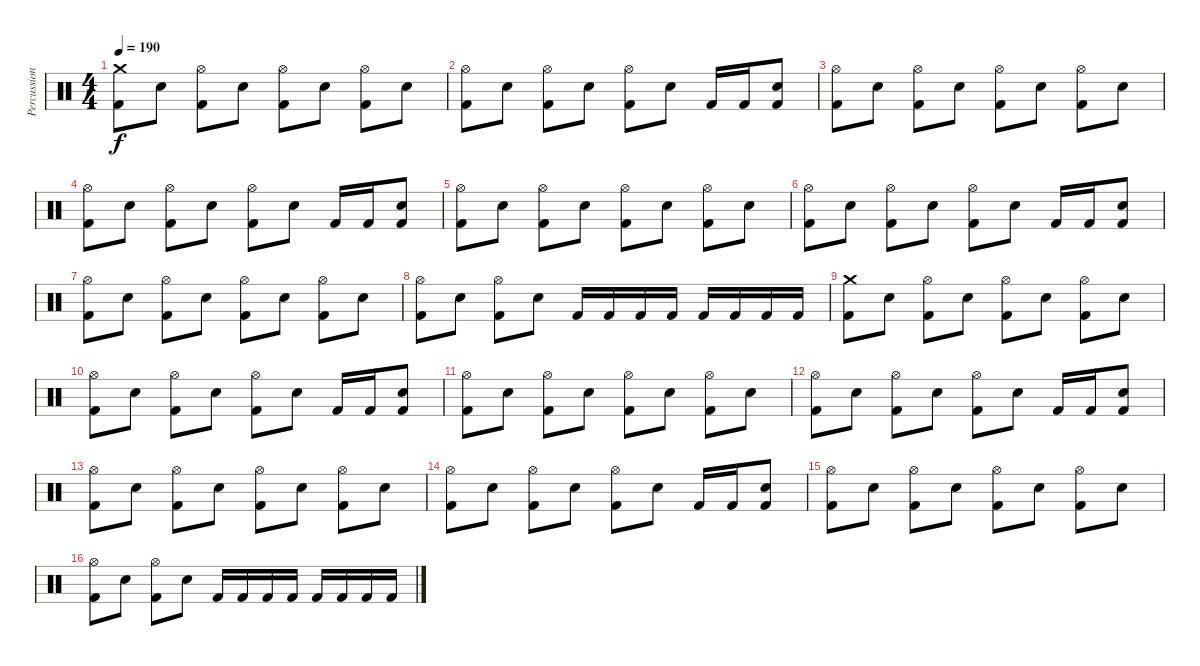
\track ("Percussion" "Percussion") {instrument percussion}
\staff {score}
\articulation defaults
\ts (4 4)
\tempo 190
\clef neutral
\ks c
("Crash medium (hit)" "Kick (hit) 2").8{dy f} "Snare (hit) 2".8 ("Hi-Hat (open)" "Kick (hit) 2").8 "Snare (hit) 2".8 ("Hi-Hat (open)" "Kick (hit) 2").8 "Snare (hit) 2".8 ("Hi-Hat (open)" "Kick (hit) 2").8 "Snare (hit) 2".8 |
("Hi-Hat (open)" "Kick (hit) 2").8 "Snare (hit) 2".8 ("Hi-Hat (open)" "Kick (hit) 2").8 "Snare (hit) 2".8 ("Hi-Hat (open)" "Kick (hit) 2").8 "Snare (hit) 2".8 "Kick (hit) 2".16 "Kick (hit) 2".16 ("Snare (hit) 2" "Kick (hit) 2").8 |
("Hi-Hat (open)" "Kick (hit) 2").8 "Snare (hit) 2".8 ("Hi-Hat (open)" "Kick (hit) 2").8 "Snare (hit) 2".8 ("Hi-Hat (open)" "Kick (hit) 2").8 "Snare (hit) 2".8 ("Hi-Hat (open)" "Kick (hit) 2").8 "Snare (hit) 2".8 |
("Hi-Hat (open)" "Kick (hit) 2").8 "Snare (hit) 2".8 ("Hi-Hat (open)" "Kick (hit) 2").8 "Snare (hit) 2".8 ("Hi-Hat (open)" "Kick (hit) 2").8 "Snare (hit) 2".8 "Kick (hit) 2".16 "Kick (hit) 2".16 ("Snare (hit) 2" "Kick (hit) 2").8 |
("Hi-Hat (open)" "Kick (hit) 2").8 "Snare (hit) 2".8 ("Hi-Hat (open)" "Kick (hit) 2").8 "Snare (hit) 2".8 ("Hi-Hat (open)" "Kick (hit) 2").8 "Snare (hit) 2".8 ("Hi-Hat (open)" "Kick (hit) 2").8 "Snare (hit) 2".8 |
("Hi-Hat (open)" "Kick (hit) 2").8 "Snare (hit) 2".8 ("Hi-Hat (open)" "Kick (hit) 2").8 "Snare (hit) 2".8 ("Hi-Hat (open)" "Kick (hit) 2").8 "Snare (hit) 2".8 "Kick (hit) 2".16 "Kick (hit) 2".16 ("Snare (hit) 2" "Kick (hit) 2").8 |
("Hi-Hat (open)" "Kick (hit) 2").8 "Snare (hit) 2".8 ("Hi-Hat (open)" "Kick (hit) 2").8 "Snare (hit) 2".8 ("Hi-Hat (open)" "Kick (hit) 2").8 "Snare (hit) 2".8 ("Hi-Hat (open)" "Kick (hit) 2").8 "Snare (hit) 2".8 |
("Hi-Hat (open)" "Kick (hit) 2").8 "Snare (hit) 2".8 ("Hi-Hat (open)" "Kick (hit) 2").8 "Snare (hit) 2".8 "Kick (hit) 2".16 "Kick (hit) 2".16 "Kick (hit) 2".16 "Kick (hit) 2".16 "Kick (hit) 2".16 "Kick (hit) 2".16 "Kick (hit) 2".16 "Kick (hit) 2".16 |
("Crash medium (hit)" "Kick (hit) 2").8 "Snare (hit) 2".8 ("Hi-Hat (open)" "Kick (hit) 2").8 "Snare (hit) 2".8 ("Hi-Hat (open)" "Kick (hit) 2").8 "Snare (hit) 2".8 ("Hi-Hat (open)" "Kick (hit) 2").8 "Snare (hit) 2".8 |
("Hi-Hat (open)" "Kick (hit) 2").8 "Snare (hit) 2".8 ("Hi-Hat (open)" "Kick (hit) 2").8 "Snare (hit) 2".8 ("Hi-Hat (open)" "Kick (hit) 2").8 "Snare (hit) 2".8 "Kick (hit) 2".16 "Kick (hit) 2".16 ("Snare (hit) 2" "Kick (hit) 2").8 |
("Hi-Hat (open)" "Kick (hit) 2").8 "Snare (hit) 2".8 ("Hi-Hat (open)" "Kick (hit) 2").8 "Snare (hit) 2".8 ("Hi-Hat (open)" "Kick (hit) 2").8 "Snare (hit) 2".8 ("Hi-Hat (open)" "Kick (hit) 2").8 "Snare (hit) 2".8 |
("Hi-Hat (open)" "Kick (hit) 2").8 "Snare (hit) 2".8 ("Hi-Hat (open)" "Kick (hit) 2").8 "Snare (hit) 2".8 ("Hi-Hat (open)" "Kick (hit) 2").8 "Snare (hit) 2".8 "Kick (hit) 2".16 "Kick (hit) 2".16 ("Snare (hit) 2" "Kick (hit) 2").8 |
("Hi-Hat (open)" "Kick (hit) 2").8 "Snare (hit) 2".8 ("Hi-Hat (open)" "Kick (hit) 2").8 "Snare (hit) 2".8 ("Hi-Hat (open)" "Kick (hit) 2").8 "Snare (hit) 2".8 ("Hi-Hat (open)" "Kick (hit) 2").8 "Snare (hit) 2".8 |
("Hi-Hat (open)" "Kick (hit) 2").8 "Snare (hit) 2".8 ("Hi-Hat (open)" "Kick (hit) 2").8 "Snare (hit) 2".8 ("Hi-Hat (open)" "Kick (hit) 2").8 "Snare (hit) 2".8 "Kick (hit) 2".16 "Kick (hit) 2".16 ("Snare (hit) 2" "Kick (hit) 2").8 |
("Hi-Hat (open)" "Kick (hit) 2").8 "Snare (hit) 2".8 ("Hi-Hat (open)" "Kick (hit) 2").8 "Snare (hit) 2".8 ("Hi-Hat (open)" "Kick (hit) 2").8 "Snare (hit) 2".8 ("Hi-Hat (open)" "Kick (hit) 2").8 "Snare (hit) 2".8 |
("Hi-Hat (open)" "Kick (hit) 2").8 "Snare (hit) 2".8 ("Hi-Hat (open)" "Kick (hit) 2").8 "Snare (hit) 2".8 "Kick (hit) 2".16 "Kick (hit) 2".16 "Kick (hit) 2".16 "Kick (hit) 2".16 "Kick (hit) 2".16 "Kick (hit) 2".16 "Kick (hit) 2".16 "Kick (hit) 2".16
